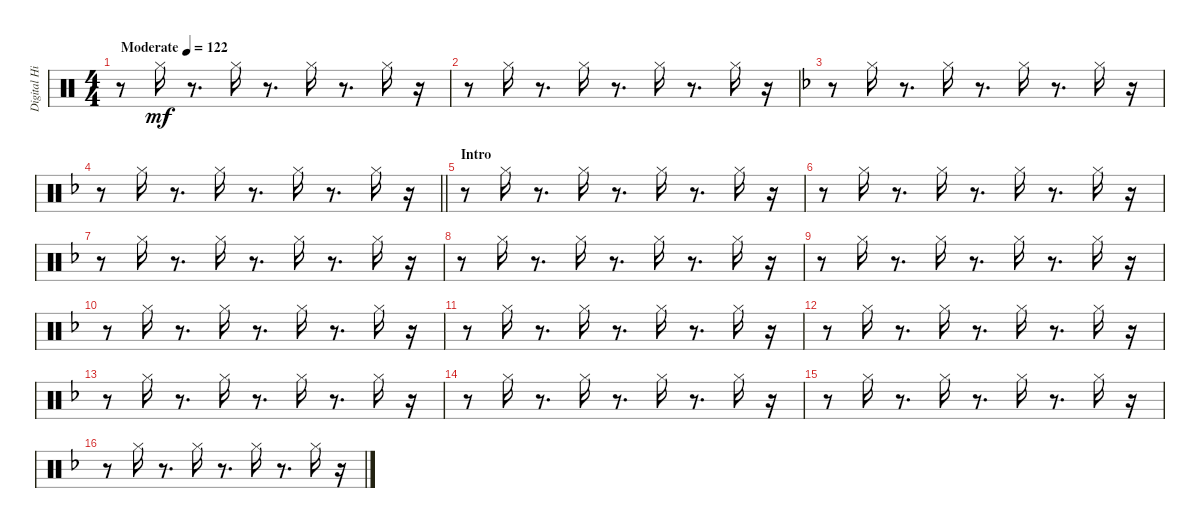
\track ("Digital Hi-Hat (Stephen Morris)" "Digital Hi") {instrument percussion}
\staff {score}
\articulation defaults
\ts (4 4)
\tempo (122 "Moderate")
\clef neutral
\ks c
r.8{dy mf} "Hi-Hat (closed)".16 r.8{d} "Hi-Hat (closed)".16 r.8{d} "Hi-Hat (closed)".16 r.8{d} "Hi-Hat (closed)".16 r.16 |
r.8 "Hi-Hat (closed)".16 r.8{d} "Hi-Hat (closed)".16 r.8{d} "Hi-Hat (closed)".16 r.8{d} "Hi-Hat (closed)".16 r.16 |
\ks f
r.8 "Hi-Hat (closed)".16 r.8{d} "Hi-Hat (closed)".16 r.8{d} "Hi-Hat (closed)".16 r.8{d} "Hi-Hat (closed)".16 r.16 |
\barLineRight lightlight
r.8 "Hi-Hat (closed)".16 r.8{d} "Hi-Hat (closed)".16 r.8{d} "Hi-Hat (closed)".16 r.8{d} "Hi-Hat (closed)".16 r.16 |
\section ("" "Intro")
r.8 "Hi-Hat (closed)".16 r.8{d} "Hi-Hat (closed)".16 r.8{d} "Hi-Hat (closed)".16 r.8{d} "Hi-Hat (closed)".16 r.16 |
r.8 "Hi-Hat (closed)".16 r.8{d} "Hi-Hat (closed)".16 r.8{d} "Hi-Hat (closed)".16 r.8{d} "Hi-Hat (closed)".16 r.16 |
r.8 "Hi-Hat (closed)".16 r.8{d} "Hi-Hat (closed)".16 r.8{d} "Hi-Hat (closed)".16 r.8{d} "Hi-Hat (closed)".16 r.16 |
r.8 "Hi-Hat (closed)".16 r.8{d} "Hi-Hat (closed)".16 r.8{d} "Hi-Hat (closed)".16 r.8{d} "Hi-Hat (closed)".16 r.16 |
r.8 "Hi-Hat (closed)".16 r.8{d} "Hi-Hat (closed)".16 r.8{d} "Hi-Hat (closed)".16 r.8{d} "Hi-Hat (closed)".16 r.16 |
r.8 "Hi-Hat (closed)".16 r.8{d} "Hi-Hat (closed)".16 r.8{d} "Hi-Hat (closed)".16 r.8{d} "Hi-Hat (closed)".16 r.16 |
r.8 "Hi-Hat (closed)".16 r.8{d} "Hi-Hat (closed)".16 r.8{d} "Hi-Hat (closed)".16 r.8{d} "Hi-Hat (closed)".16 r.16 |
r.8 "Hi-Hat (closed)".16 r.8{d} "Hi-Hat (closed)".16 r.8{d} "Hi-Hat (closed)".16 r.8{d} "Hi-Hat (closed)".16 r.16 |
r.8 "Hi-Hat (closed)".16 r.8{d} "Hi-Hat (closed)".16 r.8{d} "Hi-Hat (closed)".16 r.8{d} "Hi-Hat (closed)".16 r.16 |
r.8 "Hi-Hat (closed)".16 r.8{d} "Hi-Hat (closed)".16 r.8{d} "Hi-Hat (closed)".16 r.8{d} "Hi-Hat (closed)".16 r.16 |
r.8 "Hi-Hat (closed)".16 r.8{d} "Hi-Hat (closed)".16 r.8{d} "Hi-Hat (closed)".16 r.8{d} "Hi-Hat (closed)".16 r.16 |
r.8 "Hi-Hat (closed)".16 r.8{d} "Hi-Hat (closed)".16 r.8{d} "Hi-Hat (closed)".16 r.8{d} "Hi-Hat (closed)".16 r.16
